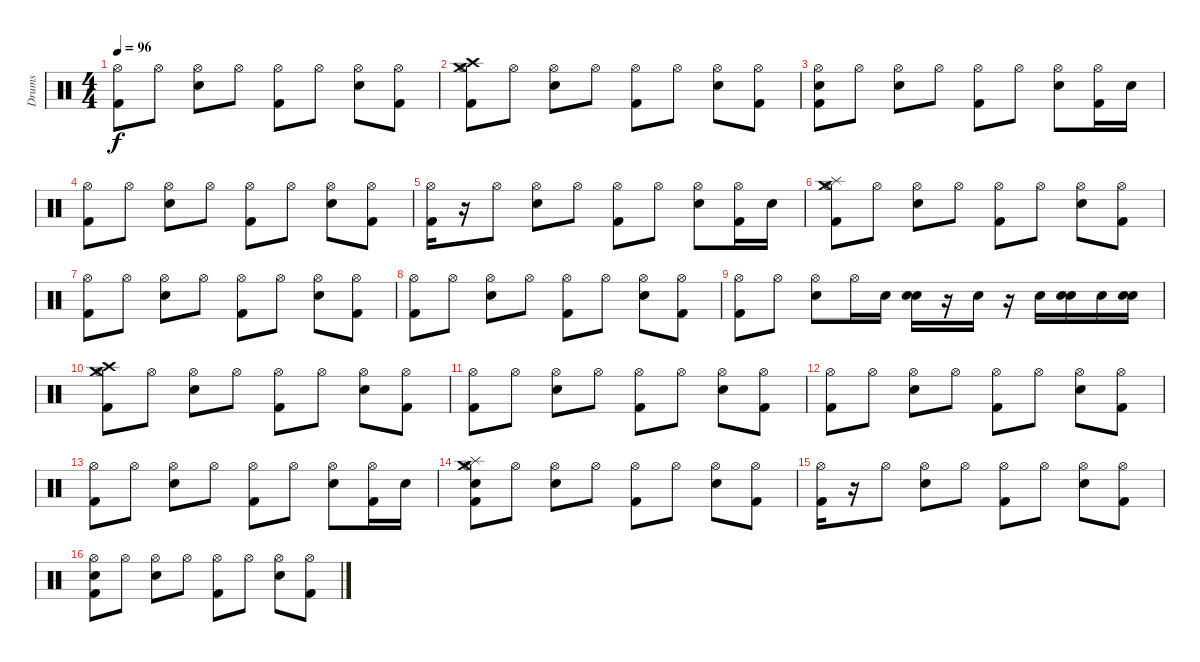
\track ("Drums" "Drums") {instrument percussion}
\staff {score}
\articulation defaults
\ts (4 4)
\tempo 96
\clef neutral
\ks c
("Hi-Hat (open)" "Kick (hit) 2").8{dy f} "Hi-Hat (open)".8 ("Hi-Hat (open)" "Snare (hit) 2").8 "Hi-Hat (open)".8 ("Hi-Hat (open)" "Kick (hit) 2").8 "Hi-Hat (open)".8 ("Hi-Hat (open)" "Snare (hit) 2").8 ("Hi-Hat (open)" "Kick (hit) 2").8 |
("Crash medium (hit)" "Crash high (hit)" "Hi-Hat (open)" "Kick (hit) 2").8 "Hi-Hat (open)".8 ("Hi-Hat (open)" "Snare (hit) 2").8 "Hi-Hat (open)".8 ("Hi-Hat (open)" "Kick (hit) 2").8 "Hi-Hat (open)".8 ("Hi-Hat (open)" "Snare (hit) 2").8 ("Hi-Hat (open)" "Kick (hit) 2").8 |
("Snare (hit)" "Hi-Hat (open)" "Kick (hit) 2").8 "Hi-Hat (open)".8 ("Hi-Hat (open)" "Snare (hit) 2").8 "Hi-Hat (open)".8 ("Hi-Hat (open)" "Kick (hit) 2").8 "Hi-Hat (open)".8 ("Hi-Hat (open)" "Snare (hit) 2").8 ("Hi-Hat (open)" "Kick (hit) 2").16 "Snare (hit) 2".16 |
("Hi-Hat (open)" "Kick (hit) 2").8 "Hi-Hat (open)".8 ("Hi-Hat (open)" "Snare (hit) 2").8 "Hi-Hat (open)".8 ("Hi-Hat (open)" "Kick (hit) 2").8 "Hi-Hat (open)".8 ("Hi-Hat (open)" "Snare (hit) 2").8 ("Hi-Hat (open)" "Kick (hit) 2").8 |
("Hi-Hat (open)" "Kick (hit) 2").16 r.16 "Hi-Hat (open)".8 ("Hi-Hat (open)" "Snare (hit) 2").8 "Hi-Hat (open)".8 ("Hi-Hat (open)" "Kick (hit) 2").8 "Hi-Hat (open)".8 ("Hi-Hat (open)" "Snare (hit) 2").8 ("Hi-Hat (open)" "Kick (hit) 2").16 "Snare (hit) 2".16 |
("Crash medium (hit)" "Splash (hit)" "Hi-Hat (open)" "Kick (hit) 2").8 "Hi-Hat (open)".8 ("Hi-Hat (open)" "Snare (hit) 2").8 "Hi-Hat (open)".8 ("Hi-Hat (open)" "Kick (hit) 2").8 "Hi-Hat (open)".8 ("Hi-Hat (open)" "Snare (hit) 2").8 ("Hi-Hat (open)" "Kick (hit) 2").8 |
("Hi-Hat (open)" "Kick (hit) 2").8 "Hi-Hat (open)".8 ("Hi-Hat (open)" "Snare (hit) 2").8 "Hi-Hat (open)".8 ("Hi-Hat (open)" "Kick (hit) 2").8 "Hi-Hat (open)".8 ("Hi-Hat (open)" "Snare (hit) 2").8 ("Hi-Hat (open)" "Kick (hit) 2").8 |
("Hi-Hat (open)" "Kick (hit) 2").8 "Hi-Hat (open)".8 ("Hi-Hat (open)" "Snare (hit) 2").8 "Hi-Hat (open)".8 ("Hi-Hat (open)" "Kick (hit) 2").8 "Hi-Hat (open)".8 ("Hi-Hat (open)" "Snare (hit) 2").8 ("Hi-Hat (open)" "Kick (hit) 2").8 |
("Hi-Hat (open)" "Kick (hit) 2").8 "Hi-Hat (open)".8 ("Hi-Hat (open)" "Snare (hit) 2").8 "Hi-Hat (open)".16 "Snare (hit) 2".16 ("Snare (hit)" "Snare (hit) 2").16 r.16 "Snare (hit) 2".16 r.16 "Snare (hit) 2".16 ("Snare (hit)" "Snare (hit) 2").16 "Snare (hit) 2".16 ("Snare (hit)" "Snare (hit) 2").16 |
("Crash medium (hit)" "Crash high (hit)" "Hi-Hat (open)" "Kick (hit) 2").8 "Hi-Hat (open)".8 ("Hi-Hat (open)" "Snare (hit) 2").8 "Hi-Hat (open)".8 ("Hi-Hat (open)" "Kick (hit) 2").8 "Hi-Hat (open)".8 ("Hi-Hat (open)" "Snare (hit) 2").8 ("Hi-Hat (open)" "Kick (hit) 2").8 |
("Hi-Hat (open)" "Kick (hit) 2").8 "Hi-Hat (open)".8 ("Hi-Hat (open)" "Snare (hit) 2").8 "Hi-Hat (open)".8 ("Hi-Hat (open)" "Kick (hit) 2").8 "Hi-Hat (open)".8 ("Hi-Hat (open)" "Snare (hit) 2").8 ("Hi-Hat (open)" "Kick (hit) 2").8 |
("Hi-Hat (open)" "Kick (hit) 2").8 "Hi-Hat (open)".8 ("Hi-Hat (open)" "Snare (hit) 2").8 "Hi-Hat (open)".8 ("Hi-Hat (open)" "Kick (hit) 2").8 "Hi-Hat (open)".8 ("Hi-Hat (open)" "Snare (hit) 2").8 ("Hi-Hat (open)" "Kick (hit) 2").8 |
("Hi-Hat (open)" "Kick (hit) 2").8 "Hi-Hat (open)".8 ("Hi-Hat (open)" "Snare (hit) 2").8 "Hi-Hat (open)".8 ("Hi-Hat (open)" "Kick (hit) 2").8 "Hi-Hat (open)".8 ("Hi-Hat (open)" "Snare (hit) 2").8 ("Hi-Hat (open)" "Kick (hit) 2").16 "Snare (hit) 2".16 |
("Snare (hit)" "Splash (hit)" "Crash medium (hit)" "Hi-Hat (open)" "Kick (hit) 2").8 "Hi-Hat (open)".8 ("Hi-Hat (open)" "Snare (hit) 2").8 "Hi-Hat (open)".8 ("Hi-Hat (open)" "Kick (hit) 2").8 "Hi-Hat (open)".8 ("Hi-Hat (open)" "Snare (hit) 2").8 ("Hi-Hat (open)" "Kick (hit) 2").8 |
("Hi-Hat (open)" "Kick (hit) 2").16 r.16 "Hi-Hat (open)".8 ("Hi-Hat (open)" "Snare (hit) 2").8 "Hi-Hat (open)".8 ("Hi-Hat (open)" "Kick (hit) 2").8 "Hi-Hat (open)".8 ("Hi-Hat (open)" "Snare (hit) 2").8 ("Hi-Hat (open)" "Kick (hit) 2").8 |
("Snare (hit)" "Hi-Hat (open)" "Kick (hit) 2").8 "Hi-Hat (open)".8 ("Hi-Hat (open)" "Snare (hit) 2").8 "Hi-Hat (open)".8 ("Hi-Hat (open)" "Kick (hit) 2").8 "Hi-Hat (open)".8 ("Hi-Hat (open)" "Snare (hit) 2").8 ("Hi-Hat (open)" "Kick (hit) 2").8
